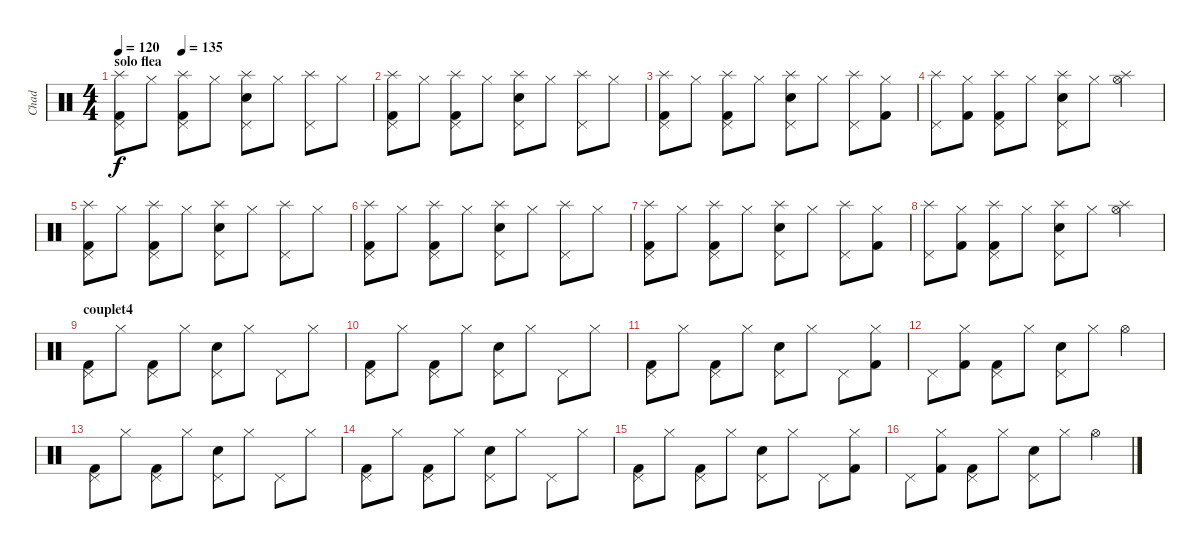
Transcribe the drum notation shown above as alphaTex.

\track ("Chad" "Chad") {instrument percussion}
\staff {score}
\articulation defaults
\ts (4 4)
\section ("" "solo flea")
\tempo 120
\tempo (135 0.25)
\clef neutral
\ks c
("Splash (hit)" "Pedal Hi-Hat (hit)" "Kick (hit) 2").8{dy f} "Hi-Hat (closed)".8 ("Splash (hit)" "Pedal Hi-Hat (hit)" "Kick (hit) 2").8 "Hi-Hat (closed)".8 ("Splash (hit)" "Pedal Hi-Hat (hit)" "Electric Snare (hit)").8 "Hi-Hat (closed)".8 ("Splash (hit)" "Pedal Hi-Hat (hit)").8 "Hi-Hat (closed)".8 |
("Splash (hit)" "Pedal Hi-Hat (hit)" "Kick (hit) 2").8 "Hi-Hat (closed)".8 ("Splash (hit)" "Pedal Hi-Hat (hit)" "Kick (hit) 2").8 "Hi-Hat (closed)".8 ("Splash (hit)" "Pedal Hi-Hat (hit)" "Electric Snare (hit)").8 "Hi-Hat (closed)".8 ("Splash (hit)" "Pedal Hi-Hat (hit)").8 "Hi-Hat (closed)".8 |
("Splash (hit)" "Pedal Hi-Hat (hit)" "Kick (hit) 2").8 "Hi-Hat (closed)".8 ("Splash (hit)" "Pedal Hi-Hat (hit)" "Kick (hit) 2").8 "Hi-Hat (closed)".8 ("Splash (hit)" "Pedal Hi-Hat (hit)" "Electric Snare (hit)").8 "Hi-Hat (closed)".8 ("Splash (hit)" "Pedal Hi-Hat (hit)").8 ("Hi-Hat (closed)" "Kick (hit) 2").8 |
("Splash (hit)" "Pedal Hi-Hat (hit)").8 ("Hi-Hat (closed)" "Kick (hit) 2").8 ("Splash (hit)" "Pedal Hi-Hat (hit)" "Kick (hit) 2").8 "Hi-Hat (closed)".8 ("Splash (hit)" "Pedal Hi-Hat (hit)" "Electric Snare (hit)").8 "Hi-Hat (closed)".8 ("Splash (hit)" "Hi-Hat (open)").4 |
("Splash (hit)" "Pedal Hi-Hat (hit)" "Kick (hit) 2").8 "Hi-Hat (closed)".8 ("Splash (hit)" "Pedal Hi-Hat (hit)" "Kick (hit) 2").8 "Hi-Hat (closed)".8 ("Splash (hit)" "Pedal Hi-Hat (hit)" "Electric Snare (hit)").8 "Hi-Hat (closed)".8 ("Splash (hit)" "Pedal Hi-Hat (hit)").8 "Hi-Hat (closed)".8 |
("Splash (hit)" "Pedal Hi-Hat (hit)" "Kick (hit) 2").8 "Hi-Hat (closed)".8 ("Splash (hit)" "Pedal Hi-Hat (hit)" "Kick (hit) 2").8 "Hi-Hat (closed)".8 ("Splash (hit)" "Pedal Hi-Hat (hit)" "Electric Snare (hit)").8 "Hi-Hat (closed)".8 ("Splash (hit)" "Pedal Hi-Hat (hit)").8 "Hi-Hat (closed)".8 |
("Splash (hit)" "Pedal Hi-Hat (hit)" "Kick (hit) 2").8 "Hi-Hat (closed)".8 ("Splash (hit)" "Pedal Hi-Hat (hit)" "Kick (hit) 2").8 "Hi-Hat (closed)".8 ("Splash (hit)" "Pedal Hi-Hat (hit)" "Electric Snare (hit)").8 "Hi-Hat (closed)".8 ("Splash (hit)" "Pedal Hi-Hat (hit)").8 ("Hi-Hat (closed)" "Kick (hit) 2").8 |
("Splash (hit)" "Pedal Hi-Hat (hit)").8 ("Hi-Hat (closed)" "Kick (hit) 2").8 ("Splash (hit)" "Pedal Hi-Hat (hit)" "Kick (hit) 2").8 "Hi-Hat (closed)".8 ("Splash (hit)" "Pedal Hi-Hat (hit)" "Electric Snare (hit)").8 "Hi-Hat (closed)".8 ("Splash (hit)" "Hi-Hat (open)").4 |
\section ("" "couplet4")
("Pedal Hi-Hat (hit)" "Kick (hit) 2").8 "Hi-Hat (closed)".8 ("Pedal Hi-Hat (hit)" "Kick (hit) 2").8 "Hi-Hat (closed)".8 ("Pedal Hi-Hat (hit)" "Electric Snare (hit)").8 "Hi-Hat (closed)".8 "Pedal Hi-Hat (hit)".8 "Hi-Hat (closed)".8 |
("Pedal Hi-Hat (hit)" "Kick (hit) 2").8 "Hi-Hat (closed)".8 ("Pedal Hi-Hat (hit)" "Kick (hit) 2").8 "Hi-Hat (closed)".8 ("Pedal Hi-Hat (hit)" "Electric Snare (hit)").8 "Hi-Hat (closed)".8 "Pedal Hi-Hat (hit)".8 "Hi-Hat (closed)".8 |
("Pedal Hi-Hat (hit)" "Kick (hit) 2").8 "Hi-Hat (closed)".8 ("Pedal Hi-Hat (hit)" "Kick (hit) 2").8 "Hi-Hat (closed)".8 ("Pedal Hi-Hat (hit)" "Electric Snare (hit)").8 "Hi-Hat (closed)".8 "Pedal Hi-Hat (hit)".8 ("Hi-Hat (closed)" "Kick (hit) 2").8 |
"Pedal Hi-Hat (hit)".8 ("Hi-Hat (closed)" "Kick (hit) 2").8 ("Pedal Hi-Hat (hit)" "Kick (hit) 2").8 "Hi-Hat (closed)".8 ("Pedal Hi-Hat (hit)" "Electric Snare (hit)").8 "Hi-Hat (closed)".8 "Hi-Hat (open)".4 |
("Pedal Hi-Hat (hit)" "Kick (hit) 2").8 "Hi-Hat (closed)".8 ("Pedal Hi-Hat (hit)" "Kick (hit) 2").8 "Hi-Hat (closed)".8 ("Pedal Hi-Hat (hit)" "Electric Snare (hit)").8 "Hi-Hat (closed)".8 "Pedal Hi-Hat (hit)".8 "Hi-Hat (closed)".8 |
("Pedal Hi-Hat (hit)" "Kick (hit) 2").8 "Hi-Hat (closed)".8 ("Pedal Hi-Hat (hit)" "Kick (hit) 2").8 "Hi-Hat (closed)".8 ("Pedal Hi-Hat (hit)" "Electric Snare (hit)").8 "Hi-Hat (closed)".8 "Pedal Hi-Hat (hit)".8 "Hi-Hat (closed)".8 |
("Pedal Hi-Hat (hit)" "Kick (hit) 2").8 "Hi-Hat (closed)".8 ("Pedal Hi-Hat (hit)" "Kick (hit) 2").8 "Hi-Hat (closed)".8 ("Pedal Hi-Hat (hit)" "Electric Snare (hit)").8 "Hi-Hat (closed)".8 "Pedal Hi-Hat (hit)".8 ("Hi-Hat (closed)" "Kick (hit) 2").8 |
"Pedal Hi-Hat (hit)".8 ("Hi-Hat (closed)" "Kick (hit) 2").8 ("Pedal Hi-Hat (hit)" "Kick (hit) 2").8 "Hi-Hat (closed)".8 ("Pedal Hi-Hat (hit)" "Electric Snare (hit)").8 "Hi-Hat (closed)".8 "Hi-Hat (open)".4
